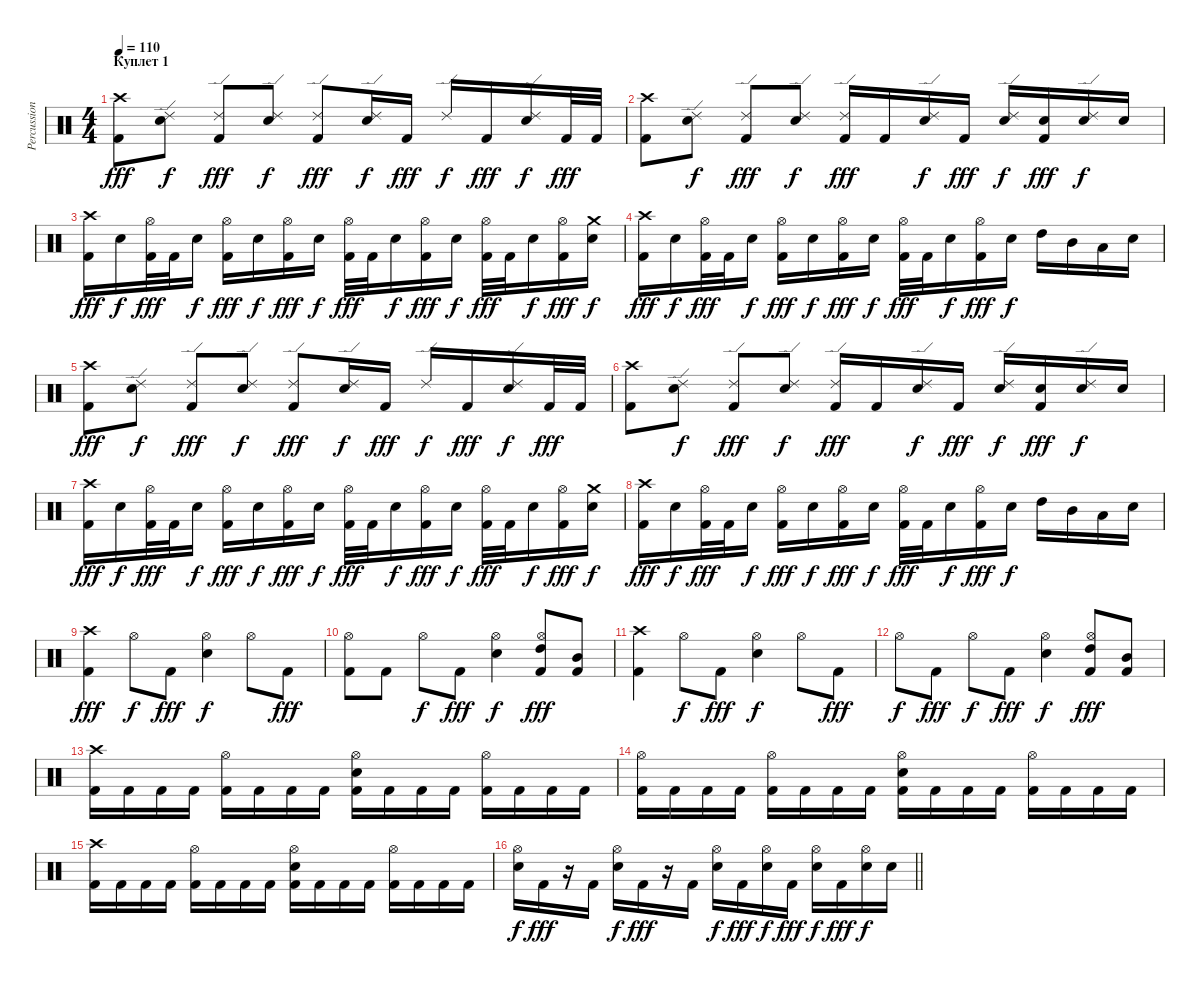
\track ("Percussion" "Percussion") {instrument percussion}
\staff {score}
\articulation defaults
\ts (4 4)
\section ("" "Куплет 1")
\tempo 110
\clef neutral
\ks c
("Crash high (hit)" "Kick (hit) 2").8{dy fff} ("Ride (edge) 2" "Snare (hit) 2").8{dy f} ("Ride (edge) 2" "Kick (hit) 2").8{dy fff} ("Ride (edge) 2" "Snare (hit) 2").8{dy f} ("Ride (edge) 2" "Kick (hit) 2").8{dy fff} ("Ride (edge) 2" "Snare (hit) 2").16{dy f} "Kick (hit) 2".16{dy fff} "Ride (edge) 2".16{dy f} "Kick (hit) 2".16{dy fff} ("Ride (edge) 2" "Snare (hit) 2").16{dy f} "Kick (hit) 2".32{dy fff} "Kick (hit) 2".32 |
("Crash high (hit)" "Kick (hit) 2").8 ("Ride (edge) 2" "Snare (hit) 2").8{dy f} ("Ride (edge) 2" "Kick (hit) 2").8{dy fff} ("Ride (edge) 2" "Snare (hit) 2").8{dy f} ("Ride (edge) 2" "Kick (hit) 2").16{dy fff} "Kick (hit) 2".16 ("Ride (edge) 2" "Snare (hit) 2").16{dy f} "Kick (hit) 2".16{dy fff} ("Ride (edge) 2" "Snare (hit) 2").16{dy f} ("Snare (hit) 2" "Kick (hit) 2").16{dy fff} ("Ride (edge) 2" "Snare (hit) 2").16{dy f} "Snare (hit) 2".16 |
("Crash high (hit)" "Kick (hit) 2").16{dy fff} "Snare (hit) 2".16{dy f} ("Hi-Hat (open)" "Kick (hit) 2").32{dy fff} "Kick (hit) 2".32 "Snare (hit) 2".16{dy f} ("Hi-Hat (open)" "Kick (hit) 2").16{dy fff} "Snare (hit) 2".16{dy f} ("Hi-Hat (open)" "Kick (hit) 2").16{dy fff} "Snare (hit) 2".16{dy f} ("Hi-Hat (open)" "Kick (hit) 2").32{dy fff} "Kick (hit) 2".32 "Snare (hit) 2".16{dy f} ("Hi-Hat (open)" "Kick (hit) 2").16{dy fff} "Snare (hit) 2".16{dy f} ("Hi-Hat (open)" "Kick (hit) 2").32{dy fff} "Kick (hit) 2".32 "Snare (hit) 2".16{dy f} ("Hi-Hat (open)" "Kick (hit) 2").16{dy fff} ("Crash medium (hit)" "Snare (hit) 2").16{dy f} |
("Crash high (hit)" "Kick (hit) 2").16{dy fff} "Snare (hit) 2".16{dy f} ("Hi-Hat (open)" "Kick (hit) 2").32{dy fff} "Kick (hit) 2".32 "Snare (hit) 2".16{dy f} ("Hi-Hat (open)" "Kick (hit) 2").16{dy fff} "Snare (hit) 2".16{dy f} ("Hi-Hat (open)" "Kick (hit) 2").16{dy fff} "Snare (hit) 2".16{dy f} ("Hi-Hat (open)" "Kick (hit) 2").32{dy fff} "Kick (hit) 2".32 "Snare (hit) 2".16{dy f} ("Hi-Hat (open)" "Kick (hit) 2").16{dy fff} "Snare (hit) 2".16{dy f} "High Tom (hit)".16 "Mid Tom (hit)".16 "Low Tom (hit)".16 "Snare (hit) 2".16 |
("Crash high (hit)" "Kick (hit) 2").8{dy fff} ("Ride (edge) 2" "Snare (hit) 2").8{dy f} ("Ride (edge) 2" "Kick (hit) 2").8{dy fff} ("Ride (edge) 2" "Snare (hit) 2").8{dy f} ("Ride (edge) 2" "Kick (hit) 2").8{dy fff} ("Ride (edge) 2" "Snare (hit) 2").16{dy f} "Kick (hit) 2".16{dy fff} "Ride (edge) 2".16{dy f} "Kick (hit) 2".16{dy fff} ("Ride (edge) 2" "Snare (hit) 2").16{dy f} "Kick (hit) 2".32{dy fff} "Kick (hit) 2".32 |
("Crash high (hit)" "Kick (hit) 2").8 ("Ride (edge) 2" "Snare (hit) 2").8{dy f} ("Ride (edge) 2" "Kick (hit) 2").8{dy fff} ("Ride (edge) 2" "Snare (hit) 2").8{dy f} ("Ride (edge) 2" "Kick (hit) 2").16{dy fff} "Kick (hit) 2".16 ("Ride (edge) 2" "Snare (hit) 2").16{dy f} "Kick (hit) 2".16{dy fff} ("Ride (edge) 2" "Snare (hit) 2").16{dy f} ("Snare (hit) 2" "Kick (hit) 2").16{dy fff} ("Ride (edge) 2" "Snare (hit) 2").16{dy f} "Snare (hit) 2".16 |
("Crash high (hit)" "Kick (hit) 2").16{dy fff} "Snare (hit) 2".16{dy f} ("Hi-Hat (open)" "Kick (hit) 2").32{dy fff} "Kick (hit) 2".32 "Snare (hit) 2".16{dy f} ("Hi-Hat (open)" "Kick (hit) 2").16{dy fff} "Snare (hit) 2".16{dy f} ("Hi-Hat (open)" "Kick (hit) 2").16{dy fff} "Snare (hit) 2".16{dy f} ("Hi-Hat (open)" "Kick (hit) 2").32{dy fff} "Kick (hit) 2".32 "Snare (hit) 2".16{dy f} ("Hi-Hat (open)" "Kick (hit) 2").16{dy fff} "Snare (hit) 2".16{dy f} ("Hi-Hat (open)" "Kick (hit) 2").32{dy fff} "Kick (hit) 2".32 "Snare (hit) 2".16{dy f} ("Hi-Hat (open)" "Kick (hit) 2").16{dy fff} ("Crash medium (hit)" "Snare (hit) 2").16{dy f} |
("Crash high (hit)" "Kick (hit) 2").16{dy fff} "Snare (hit) 2".16{dy f} ("Hi-Hat (open)" "Kick (hit) 2").32{dy fff} "Kick (hit) 2".32 "Snare (hit) 2".16{dy f} ("Hi-Hat (open)" "Kick (hit) 2").16{dy fff} "Snare (hit) 2".16{dy f} ("Hi-Hat (open)" "Kick (hit) 2").16{dy fff} "Snare (hit) 2".16{dy f} ("Hi-Hat (open)" "Kick (hit) 2").32{dy fff} "Kick (hit) 2".32 "Snare (hit) 2".16{dy f} ("Hi-Hat (open)" "Kick (hit) 2").16{dy fff} "Snare (hit) 2".16{dy f} "High Tom (hit)".16 "Mid Tom (hit)".16 "Low Tom (hit)".16 "Snare (hit) 2".16 |
("Crash high (hit)" "Kick (hit) 2").4{dy fff} "Hi-Hat (open)".8{dy f} "Kick (hit) 2".8{dy fff} ("Hi-Hat (open)" "Snare (hit) 2").4{dy f} "Hi-Hat (open)".8 "Kick (hit) 2".8{dy fff} |
("Hi-Hat (open)" "Kick (hit) 2").8 "Kick (hit) 2".8 "Hi-Hat (open)".8{dy f} "Kick (hit) 2".8{dy fff} ("Hi-Hat (open)" "Snare (hit) 2").4{dy f} ("Hi-Hat (open)" "High Tom (hit)" "Kick (hit) 2").8{dy fff} ("Mid Tom (hit)" "Kick (hit) 2").8 |
("Crash high (hit)" "Kick (hit) 2").4 "Hi-Hat (open)".8{dy f} "Kick (hit) 2".8{dy fff} ("Hi-Hat (open)" "Snare (hit) 2").4{dy f} "Hi-Hat (open)".8 "Kick (hit) 2".8{dy fff} |
"Hi-Hat (open)".8{dy f} "Kick (hit) 2".8{dy fff} "Hi-Hat (open)".8{dy f} "Kick (hit) 2".8{dy fff} ("Hi-Hat (open)" "Snare (hit) 2").4{dy f} ("Hi-Hat (open)" "High Tom (hit)" "Kick (hit) 2").8{dy fff} ("Mid Tom (hit)" "Kick (hit) 2").8 |
("Crash high (hit)" "Kick (hit) 2").16 "Kick (hit) 2".16 "Kick (hit) 2".16 "Kick (hit) 2".16 ("Hi-Hat (open)" "Kick (hit) 2").16 "Kick (hit) 2".16 "Kick (hit) 2".16 "Kick (hit) 2".16 ("Hi-Hat (open)" "Snare (hit) 2" "Kick (hit) 2").16 "Kick (hit) 2".16 "Kick (hit) 2".16 "Kick (hit) 2".16 ("Hi-Hat (open)" "Kick (hit) 2").16 "Kick (hit) 2".16 "Kick (hit) 2".16 "Kick (hit) 2".16 |
("Hi-Hat (open)" "Kick (hit) 2").16 "Kick (hit) 2".16 "Kick (hit) 2".16 "Kick (hit) 2".16 ("Hi-Hat (open)" "Kick (hit) 2").16 "Kick (hit) 2".16 "Kick (hit) 2".16 "Kick (hit) 2".16 ("Hi-Hat (open)" "Snare (hit) 2" "Kick (hit) 2").16 "Kick (hit) 2".16 "Kick (hit) 2".16 "Kick (hit) 2".16 ("Hi-Hat (open)" "Kick (hit) 2").16 "Kick (hit) 2".16 "Kick (hit) 2".16 "Kick (hit) 2".16 |
("Crash high (hit)" "Kick (hit) 2").16 "Kick (hit) 2".16 "Kick (hit) 2".16 "Kick (hit) 2".16 ("Hi-Hat (open)" "Kick (hit) 2").16 "Kick (hit) 2".16 "Kick (hit) 2".16 "Kick (hit) 2".16 ("Hi-Hat (open)" "Snare (hit) 2" "Kick (hit) 2").16 "Kick (hit) 2".16 "Kick (hit) 2".16 "Kick (hit) 2".16 ("Hi-Hat (open)" "Kick (hit) 2").16 "Kick (hit) 2".16 "Kick (hit) 2".16 "Kick (hit) 2".16 |
\barLineRight lightlight
("Hi-Hat (open)" "Snare (hit) 2").16{dy f} "Kick (hit) 2".16{dy fff} r.16 "Kick (hit) 2".16 ("Hi-Hat (open)" "Snare (hit) 2").16{dy f} "Kick (hit) 2".16{dy fff} r.16 "Kick (hit) 2".16 ("Hi-Hat (open)" "Snare (hit) 2").16{dy f} "Kick (hit) 2".16{dy fff} ("Hi-Hat (open)" "Snare (hit) 2").16{dy f} "Kick (hit) 2".16{dy fff} ("Hi-Hat (open)" "Snare (hit) 2").16{dy f} "Kick (hit) 2".16{dy fff} ("Hi-Hat (open)" "Snare (hit) 2").16{dy f} "Snare (hit) 2".16
